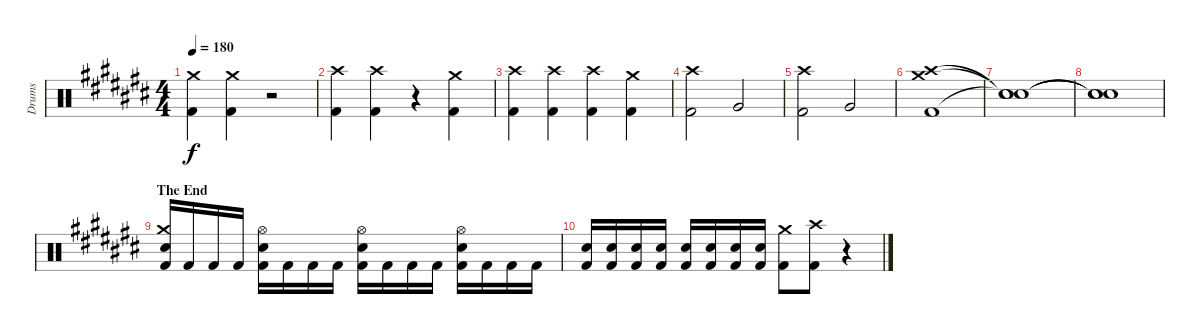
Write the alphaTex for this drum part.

\track ("Drums" "Drums") {instrument percussion}
\staff {score}
\articulation defaults
\ts (4 4)
\tempo 180
\clef neutral
\ks a#minor
("Kick (hit) 2" "Crash medium (hit)").4{dy f} ("Kick (hit) 2" "Crash medium (hit)").4 r.2 |
("Kick (hit) 2" "Crash high (hit)").4 ("Kick (hit) 2" "Crash high (hit)").4 r.4 ("Kick (hit) 2" "Crash medium (hit)").4 |
("Kick (hit) 2" "Crash high (hit)").4 ("Kick (hit) 2" "Crash high (hit)").4 ("Kick (hit) 2" "Crash high (hit)").4 ("Kick (hit) 2" "Crash medium (hit)").4 |
("Kick (hit) 2" "Crash high (hit)").2 "Very Low Tom (hit)".2 |
("Kick (hit) 2" "Crash high (hit)").2 "Very Low Tom (hit)".2 |
("Kick (hit) 2" "Crash medium (hit)" "Crash high (hit)").1 |
("Snare (hit)"{t} "Snare (hit)"{t} "Snare (hit)"{t}).1 |
("Snare (hit)"{t} "Snare (hit)"{t} "Snare (hit)"{t}).1 |
\section ("" "The End")
("Kick (hit) 2" "Electric Snare (hit)" "Crash medium (hit)").16 "Kick (hit) 2".16 "Kick (hit) 2".16 "Kick (hit) 2".16 ("Kick (hit) 2" "Electric Snare (hit)" "Hi-Hat (open)").16 "Kick (hit) 2".16 "Kick (hit) 2".16 "Kick (hit) 2".16 ("Kick (hit) 2" "Electric Snare (hit)" "Hi-Hat (open)").16 "Kick (hit) 2".16 "Kick (hit) 2".16 "Kick (hit) 2".16 ("Kick (hit) 2" "Electric Snare (hit)" "Hi-Hat (open)").16 "Kick (hit) 2".16 "Kick (hit) 2".16 "Kick (hit) 2".16 |
("Kick (hit) 2" "Electric Snare (hit)").16 ("Kick (hit) 2" "Electric Snare (hit)").16 ("Kick (hit) 2" "Electric Snare (hit)").16 ("Kick (hit) 2" "Electric Snare (hit)").16 ("Kick (hit) 2" "Electric Snare (hit)").16 ("Kick (hit) 2" "Electric Snare (hit)").16 ("Kick (hit) 2" "Electric Snare (hit)").16 ("Kick (hit) 2" "Electric Snare (hit)").16 ("Kick (hit) 2" "Crash medium (hit)").8 ("Kick (hit) 2" "Crash high (hit)").8 r.4
